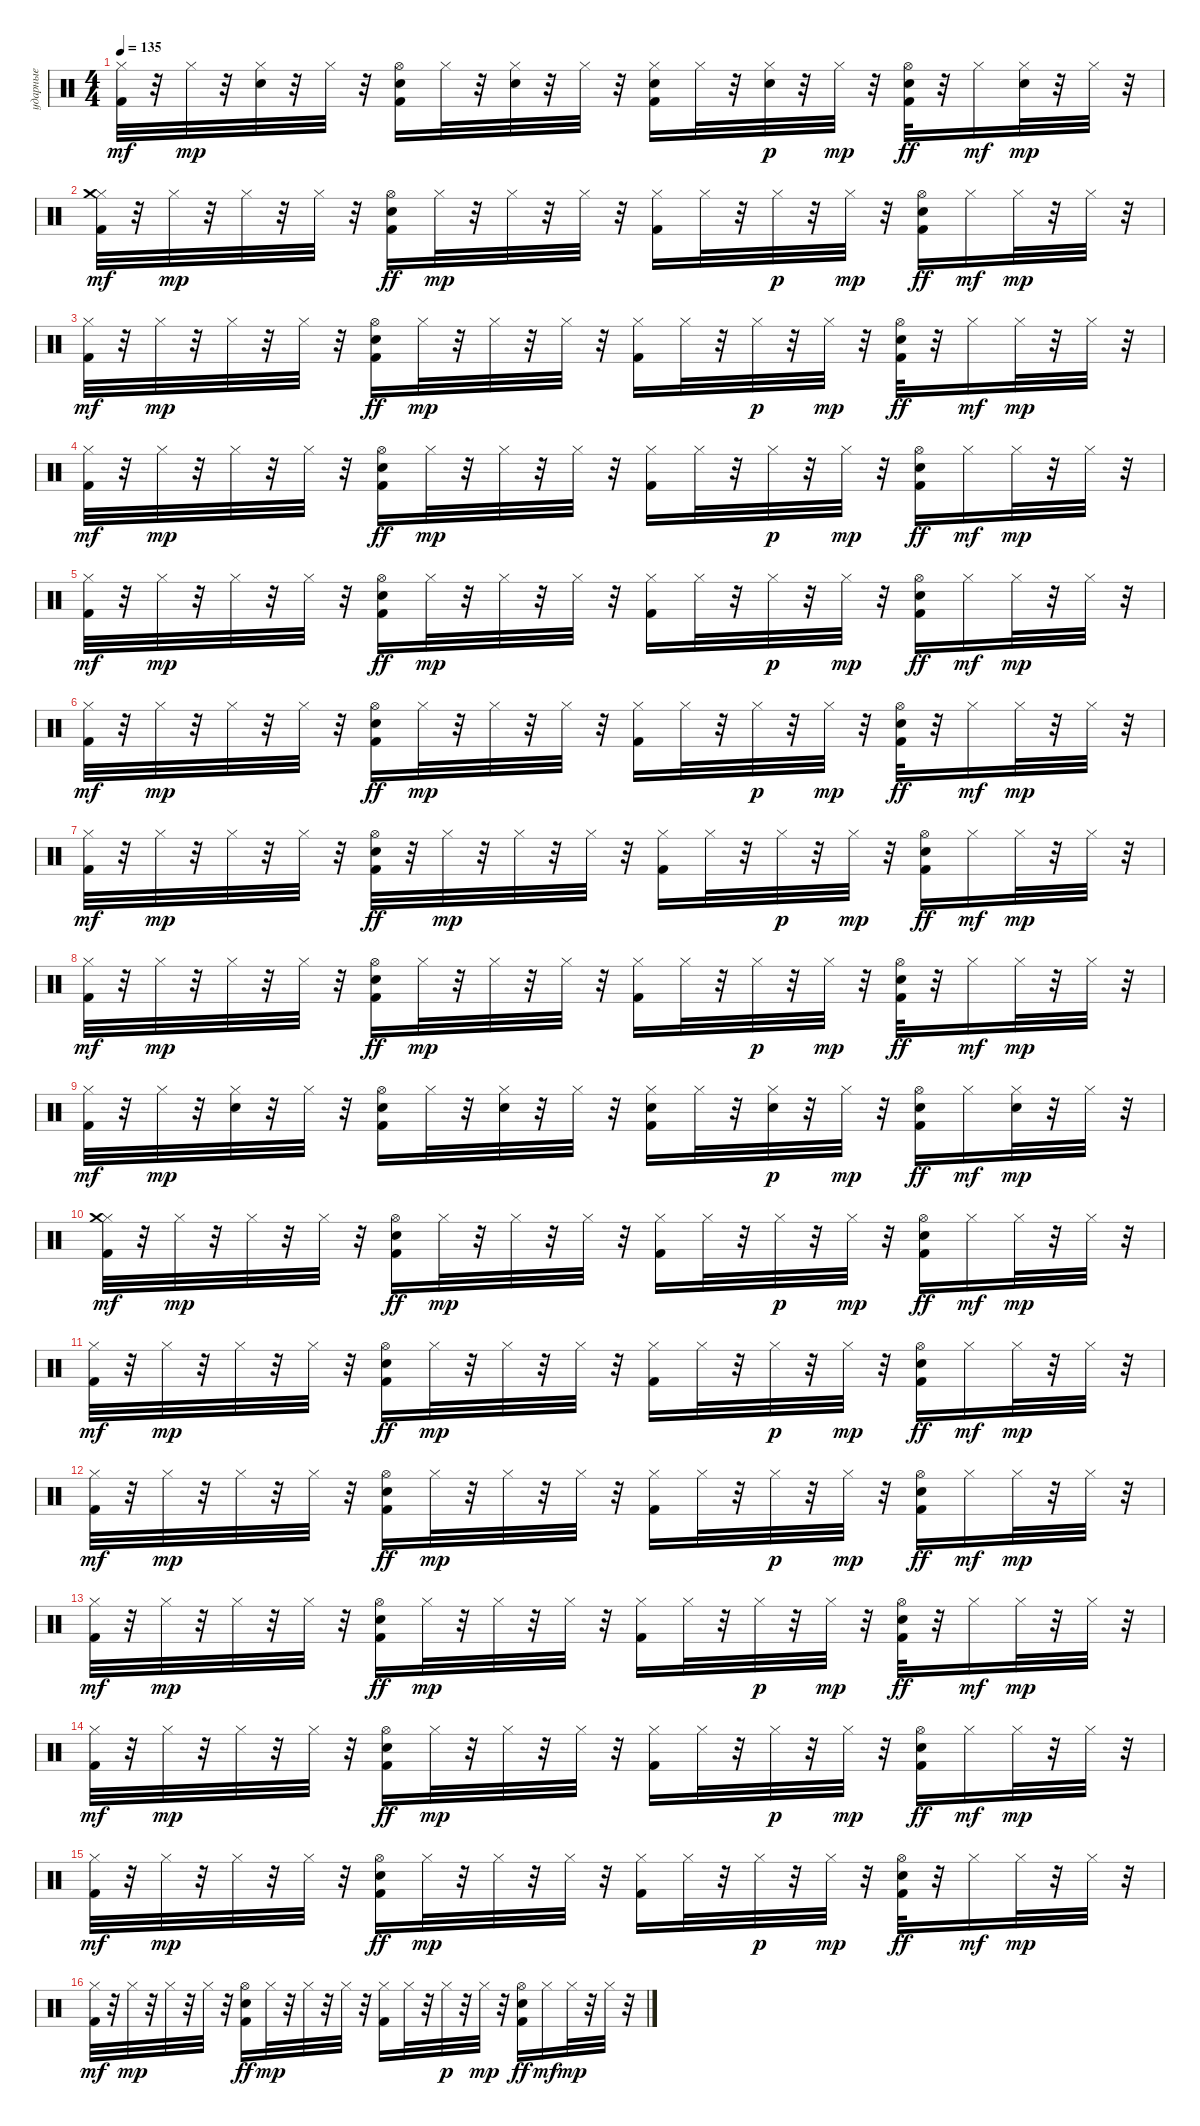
\track ("ударные" "ударные") {instrument percussion}
\staff {score}
\articulation defaults
\ts (4 4)
\tempo 135
\clef neutral
\ks c
("Kick (hit) 2" "Hi-Hat (closed)").32{dy mf} r.32 "Hi-Hat (closed)".32{dy mp} r.32 ("Snare (hit) 2" "Hi-Hat (closed)").32 r.32 "Hi-Hat (closed)".32 r.32 ("Kick (hit) 2" "Snare (hit) 2" "Hi-Hat (open)").16 "Hi-Hat (closed)".32 r.32 ("Snare (hit) 2" "Hi-Hat (closed)").32 r.32 "Hi-Hat (closed)".32 r.32 ("Kick (hit) 2" "Snare (hit) 2" "Hi-Hat (closed)").16 "Hi-Hat (closed)".32 r.32 ("Snare (hit) 2" "Hi-Hat (closed)").32{dy p} r.32 "Hi-Hat (closed)".32{dy mp} r.32 ("Kick (hit) 2" "Snare (hit) 2" "Hi-Hat (open)").32{dy ff} r.32 "Hi-Hat (closed)".16{dy mf} ("Snare (hit) 2" "Hi-Hat (closed)").32{dy mp} r.32 "Hi-Hat (closed)".32 r.32 |
("Kick (hit) 2" "Hi-Hat (closed)" "Crash medium (hit)").32{dy mf} r.32 "Hi-Hat (closed)".32{dy mp} r.32 "Hi-Hat (closed)".32 r.32 "Hi-Hat (closed)".32 r.32 ("Kick (hit) 2" "Snare (hit) 2" "Hi-Hat (open)").16{dy ff} "Hi-Hat (closed)".32{dy mp} r.32 "Hi-Hat (closed)".32 r.32 "Hi-Hat (closed)".32 r.32 ("Kick (hit) 2" "Hi-Hat (closed)").16 "Hi-Hat (closed)".32 r.32 "Hi-Hat (closed)".32{dy p} r.32 "Hi-Hat (closed)".32{dy mp} r.32 ("Kick (hit) 2" "Snare (hit) 2" "Hi-Hat (open)").16{dy ff} "Hi-Hat (closed)".16{dy mf} "Hi-Hat (closed)".32{dy mp} r.32 "Hi-Hat (closed)".32 r.32 |
("Kick (hit) 2" "Hi-Hat (closed)").32{dy mf} r.32 "Hi-Hat (closed)".32{dy mp} r.32 "Hi-Hat (closed)".32 r.32 "Hi-Hat (closed)".32 r.32 ("Kick (hit) 2" "Snare (hit) 2" "Hi-Hat (open)").16{dy ff} "Hi-Hat (closed)".32{dy mp} r.32 "Hi-Hat (closed)".32 r.32 "Hi-Hat (closed)".32 r.32 ("Kick (hit) 2" "Hi-Hat (closed)").16 "Hi-Hat (closed)".32 r.32 "Hi-Hat (closed)".32{dy p} r.32 "Hi-Hat (closed)".32{dy mp} r.32 ("Kick (hit) 2" "Snare (hit) 2" "Hi-Hat (open)").32{dy ff} r.32 "Hi-Hat (closed)".16{dy mf} "Hi-Hat (closed)".32{dy mp} r.32 "Hi-Hat (closed)".32 r.32 |
("Kick (hit) 2" "Hi-Hat (closed)").32{dy mf} r.32 "Hi-Hat (closed)".32{dy mp} r.32 "Hi-Hat (closed)".32 r.32 "Hi-Hat (closed)".32 r.32 ("Kick (hit) 2" "Snare (hit) 2" "Hi-Hat (open)").16{dy ff} "Hi-Hat (closed)".32{dy mp} r.32 "Hi-Hat (closed)".32 r.32 "Hi-Hat (closed)".32 r.32 ("Kick (hit) 2" "Hi-Hat (closed)").16 "Hi-Hat (closed)".32 r.32 "Hi-Hat (closed)".32{dy p} r.32 "Hi-Hat (closed)".32{dy mp} r.32 ("Kick (hit) 2" "Snare (hit) 2" "Hi-Hat (open)").16{dy ff} "Hi-Hat (closed)".16{dy mf} "Hi-Hat (closed)".32{dy mp} r.32 "Hi-Hat (closed)".32 r.32 |
("Kick (hit) 2" "Hi-Hat (closed)").32{dy mf} r.32 "Hi-Hat (closed)".32{dy mp} r.32 "Hi-Hat (closed)".32 r.32 "Hi-Hat (closed)".32 r.32 ("Kick (hit) 2" "Snare (hit) 2" "Hi-Hat (open)").16{dy ff} "Hi-Hat (closed)".32{dy mp} r.32 "Hi-Hat (closed)".32 r.32 "Hi-Hat (closed)".32 r.32 ("Kick (hit) 2" "Hi-Hat (closed)").16 "Hi-Hat (closed)".32 r.32 "Hi-Hat (closed)".32{dy p} r.32 "Hi-Hat (closed)".32{dy mp} r.32 ("Kick (hit) 2" "Snare (hit) 2" "Hi-Hat (open)").16{dy ff} "Hi-Hat (closed)".16{dy mf} "Hi-Hat (closed)".32{dy mp} r.32 "Hi-Hat (closed)".32 r.32 |
("Kick (hit) 2" "Hi-Hat (closed)").32{dy mf} r.32 "Hi-Hat (closed)".32{dy mp} r.32 "Hi-Hat (closed)".32 r.32 "Hi-Hat (closed)".32 r.32 ("Kick (hit) 2" "Snare (hit) 2" "Hi-Hat (open)").16{dy ff} "Hi-Hat (closed)".32{dy mp} r.32 "Hi-Hat (closed)".32 r.32 "Hi-Hat (closed)".32 r.32 ("Kick (hit) 2" "Hi-Hat (closed)").16 "Hi-Hat (closed)".32 r.32 "Hi-Hat (closed)".32{dy p} r.32 "Hi-Hat (closed)".32{dy mp} r.32 ("Kick (hit) 2" "Snare (hit) 2" "Hi-Hat (open)").32{dy ff} r.32 "Hi-Hat (closed)".16{dy mf} "Hi-Hat (closed)".32{dy mp} r.32 "Hi-Hat (closed)".32 r.32 |
("Kick (hit) 2" "Hi-Hat (closed)").32{dy mf} r.32 "Hi-Hat (closed)".32{dy mp} r.32 "Hi-Hat (closed)".32 r.32 "Hi-Hat (closed)".32 r.32 ("Kick (hit) 2" "Snare (hit) 2" "Hi-Hat (open)").32{dy ff} r.32 "Hi-Hat (closed)".32{dy mp} r.32 "Hi-Hat (closed)".32 r.32 "Hi-Hat (closed)".32 r.32 ("Kick (hit) 2" "Hi-Hat (closed)").16 "Hi-Hat (closed)".32 r.32 "Hi-Hat (closed)".32{dy p} r.32 "Hi-Hat (closed)".32{dy mp} r.32 ("Kick (hit) 2" "Snare (hit) 2" "Hi-Hat (open)").16{dy ff} "Hi-Hat (closed)".16{dy mf} "Hi-Hat (closed)".32{dy mp} r.32 "Hi-Hat (closed)".32 r.32 |
("Kick (hit) 2" "Hi-Hat (closed)").32{dy mf} r.32 "Hi-Hat (closed)".32{dy mp} r.32 "Hi-Hat (closed)".32 r.32 "Hi-Hat (closed)".32 r.32 ("Kick (hit) 2" "Snare (hit) 2" "Hi-Hat (open)").16{dy ff} "Hi-Hat (closed)".32{dy mp} r.32 "Hi-Hat (closed)".32 r.32 "Hi-Hat (closed)".32 r.32 ("Kick (hit) 2" "Hi-Hat (closed)").16 "Hi-Hat (closed)".32 r.32 "Hi-Hat (closed)".32{dy p} r.32 "Hi-Hat (closed)".32{dy mp} r.32 ("Kick (hit) 2" "Snare (hit) 2" "Hi-Hat (open)").32{dy ff} r.32 "Hi-Hat (closed)".16{dy mf} "Hi-Hat (closed)".32{dy mp} r.32 "Hi-Hat (closed)".32 r.32 |
("Kick (hit) 2" "Hi-Hat (closed)").32{dy mf} r.32 "Hi-Hat (closed)".32{dy mp} r.32 ("Snare (hit) 2" "Hi-Hat (closed)").32 r.32 "Hi-Hat (closed)".32 r.32 ("Kick (hit) 2" "Snare (hit) 2" "Hi-Hat (open)").16 "Hi-Hat (closed)".32 r.32 ("Snare (hit) 2" "Hi-Hat (closed)").32 r.32 "Hi-Hat (closed)".32 r.32 ("Kick (hit) 2" "Snare (hit) 2" "Hi-Hat (closed)").16 "Hi-Hat (closed)".32 r.32 ("Snare (hit) 2" "Hi-Hat (closed)").32{dy p} r.32 "Hi-Hat (closed)".32{dy mp} r.32 ("Kick (hit) 2" "Snare (hit) 2" "Hi-Hat (open)").16{dy ff} "Hi-Hat (closed)".16{dy mf} ("Snare (hit) 2" "Hi-Hat (closed)").32{dy mp} r.32 "Hi-Hat (closed)".32 r.32 |
("Kick (hit) 2" "Hi-Hat (closed)" "Crash medium (hit)").32{dy mf} r.32 "Hi-Hat (closed)".32{dy mp} r.32 "Hi-Hat (closed)".32 r.32 "Hi-Hat (closed)".32 r.32 ("Kick (hit) 2" "Snare (hit) 2" "Hi-Hat (open)").16{dy ff} "Hi-Hat (closed)".32{dy mp} r.32 "Hi-Hat (closed)".32 r.32 "Hi-Hat (closed)".32 r.32 ("Kick (hit) 2" "Hi-Hat (closed)").16 "Hi-Hat (closed)".32 r.32 "Hi-Hat (closed)".32{dy p} r.32 "Hi-Hat (closed)".32{dy mp} r.32 ("Kick (hit) 2" "Snare (hit) 2" "Hi-Hat (open)").16{dy ff} "Hi-Hat (closed)".16{dy mf} "Hi-Hat (closed)".32{dy mp} r.32 "Hi-Hat (closed)".32 r.32 |
("Kick (hit) 2" "Hi-Hat (closed)").32{dy mf} r.32 "Hi-Hat (closed)".32{dy mp} r.32 "Hi-Hat (closed)".32 r.32 "Hi-Hat (closed)".32 r.32 ("Kick (hit) 2" "Snare (hit) 2" "Hi-Hat (open)").16{dy ff} "Hi-Hat (closed)".32{dy mp} r.32 "Hi-Hat (closed)".32 r.32 "Hi-Hat (closed)".32 r.32 ("Kick (hit) 2" "Hi-Hat (closed)").16 "Hi-Hat (closed)".32 r.32 "Hi-Hat (closed)".32{dy p} r.32 "Hi-Hat (closed)".32{dy mp} r.32 ("Kick (hit) 2" "Snare (hit) 2" "Hi-Hat (open)").16{dy ff} "Hi-Hat (closed)".16{dy mf} "Hi-Hat (closed)".32{dy mp} r.32 "Hi-Hat (closed)".32 r.32 |
("Kick (hit) 2" "Hi-Hat (closed)").32{dy mf} r.32 "Hi-Hat (closed)".32{dy mp} r.32 "Hi-Hat (closed)".32 r.32 "Hi-Hat (closed)".32 r.32 ("Kick (hit) 2" "Snare (hit) 2" "Hi-Hat (open)").16{dy ff} "Hi-Hat (closed)".32{dy mp} r.32 "Hi-Hat (closed)".32 r.32 "Hi-Hat (closed)".32 r.32 ("Kick (hit) 2" "Hi-Hat (closed)").16 "Hi-Hat (closed)".32 r.32 "Hi-Hat (closed)".32{dy p} r.32 "Hi-Hat (closed)".32{dy mp} r.32 ("Kick (hit) 2" "Snare (hit) 2" "Hi-Hat (open)").16{dy ff} "Hi-Hat (closed)".16{dy mf} "Hi-Hat (closed)".32{dy mp} r.32 "Hi-Hat (closed)".32 r.32 |
("Kick (hit) 2" "Hi-Hat (closed)").32{dy mf} r.32 "Hi-Hat (closed)".32{dy mp} r.32 "Hi-Hat (closed)".32 r.32 "Hi-Hat (closed)".32 r.32 ("Kick (hit) 2" "Snare (hit) 2" "Hi-Hat (open)").16{dy ff} "Hi-Hat (closed)".32{dy mp} r.32 "Hi-Hat (closed)".32 r.32 "Hi-Hat (closed)".32 r.32 ("Kick (hit) 2" "Hi-Hat (closed)").16 "Hi-Hat (closed)".32 r.32 "Hi-Hat (closed)".32{dy p} r.32 "Hi-Hat (closed)".32{dy mp} r.32 ("Kick (hit) 2" "Snare (hit) 2" "Hi-Hat (open)").32{dy ff} r.32 "Hi-Hat (closed)".16{dy mf} "Hi-Hat (closed)".32{dy mp} r.32 "Hi-Hat (closed)".32 r.32 |
("Kick (hit) 2" "Hi-Hat (closed)").32{dy mf} r.32 "Hi-Hat (closed)".32{dy mp} r.32 "Hi-Hat (closed)".32 r.32 "Hi-Hat (closed)".32 r.32 ("Kick (hit) 2" "Snare (hit) 2" "Hi-Hat (open)").16{dy ff} "Hi-Hat (closed)".32{dy mp} r.32 "Hi-Hat (closed)".32 r.32 "Hi-Hat (closed)".32 r.32 ("Kick (hit) 2" "Hi-Hat (closed)").16 "Hi-Hat (closed)".32 r.32 "Hi-Hat (closed)".32{dy p} r.32 "Hi-Hat (closed)".32{dy mp} r.32 ("Kick (hit) 2" "Snare (hit) 2" "Hi-Hat (open)").16{dy ff} "Hi-Hat (closed)".16{dy mf} "Hi-Hat (closed)".32{dy mp} r.32 "Hi-Hat (closed)".32 r.32 |
("Kick (hit) 2" "Hi-Hat (closed)").32{dy mf} r.32 "Hi-Hat (closed)".32{dy mp} r.32 "Hi-Hat (closed)".32 r.32 "Hi-Hat (closed)".32 r.32 ("Kick (hit) 2" "Snare (hit) 2" "Hi-Hat (open)").16{dy ff} "Hi-Hat (closed)".32{dy mp} r.32 "Hi-Hat (closed)".32 r.32 "Hi-Hat (closed)".32 r.32 ("Kick (hit) 2" "Hi-Hat (closed)").16 "Hi-Hat (closed)".32 r.32 "Hi-Hat (closed)".32{dy p} r.32 "Hi-Hat (closed)".32{dy mp} r.32 ("Kick (hit) 2" "Snare (hit) 2" "Hi-Hat (open)").32{dy ff} r.32 "Hi-Hat (closed)".16{dy mf} "Hi-Hat (closed)".32{dy mp} r.32 "Hi-Hat (closed)".32 r.32 |
("Kick (hit) 2" "Hi-Hat (closed)").32{dy mf} r.32 "Hi-Hat (closed)".32{dy mp} r.32 "Hi-Hat (closed)".32 r.32 "Hi-Hat (closed)".32 r.32 ("Kick (hit) 2" "Snare (hit) 2" "Hi-Hat (open)").16{dy ff} "Hi-Hat (closed)".32{dy mp} r.32 "Hi-Hat (closed)".32 r.32 "Hi-Hat (closed)".32 r.32 ("Kick (hit) 2" "Hi-Hat (closed)").16 "Hi-Hat (closed)".32 r.32 "Hi-Hat (closed)".32{dy p} r.32 "Hi-Hat (closed)".32{dy mp} r.32 ("Kick (hit) 2" "Snare (hit) 2" "Hi-Hat (open)").16{dy ff} "Hi-Hat (closed)".16{dy mf} "Hi-Hat (closed)".32{dy mp} r.32 "Hi-Hat (closed)".32 r.32
